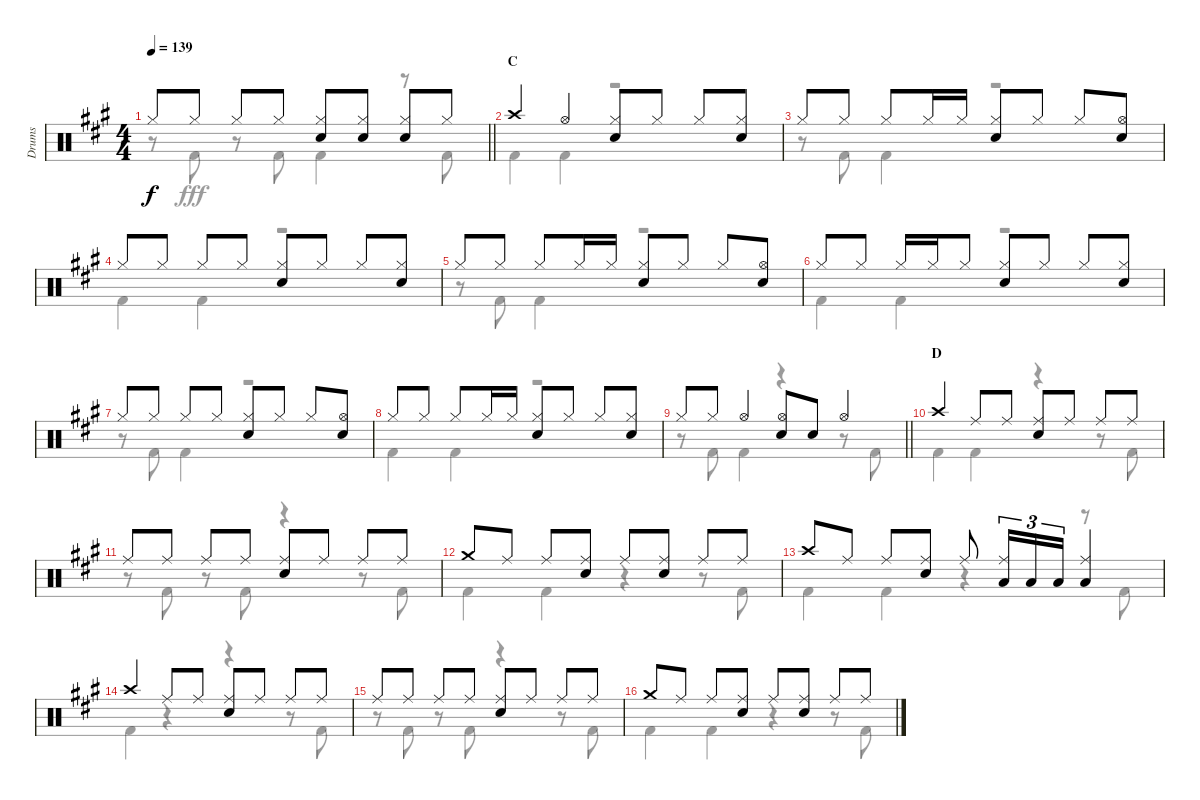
\track ("Drums" "Drums") {instrument percussion}
\staff {score}
\articulation defaults
\voice
\ts (4 4)
\tempo 139
\clef neutral
\barLineRight lightlight
\ks a "Hi-Hat (closed)".8{dy f} "Hi-Hat (closed)".8 "Hi-Hat (closed)".8 "Hi-Hat (closed)".8
("Hi-Hat (closed)" "Snare (hit) 2").8 ("Hi-Hat (closed)" "Snare (hit) 2").8 ("Hi-Hat (closed)" "Snare (hit) 2").8 "Hi-Hat (closed)".8 |
\section ("" "C")
"Crash high (hit)".4 "Hi-Hat (open)".4 ("Hi-Hat (closed)" "Snare (hit) 2").8 "Hi-Hat (closed)".8 "Hi-Hat (closed)".8 ("Hi-Hat (closed)" "Snare (hit) 2").8 |
"Hi-Hat (closed)".8 "Hi-Hat (closed)".8 "Hi-Hat (closed)".8 "Hi-Hat (closed)".16 "Hi-Hat (closed)".16 ("Hi-Hat (closed)" "Snare (hit) 2").8 "Hi-Hat (closed)".8 "Hi-Hat (closed)".8 ("Hi-Hat (open)" "Snare (hit) 2").8 |
"Hi-Hat (closed)".8 "Hi-Hat (closed)".8 "Hi-Hat (closed)".8 "Hi-Hat (closed)".8 ("Hi-Hat (closed)" "Snare (hit) 2").8 "Hi-Hat (closed)".8 "Hi-Hat (closed)".8 ("Hi-Hat (closed)" "Snare (hit) 2").8 |
"Hi-Hat (closed)".8 "Hi-Hat (closed)".8 "Hi-Hat (closed)".8 "Hi-Hat (closed)".16 "Hi-Hat (closed)".16 ("Hi-Hat (closed)" "Snare (hit) 2").8 "Hi-Hat (closed)".8 "Hi-Hat (closed)".8 ("Hi-Hat (open)" "Snare (hit) 2").8 |
"Hi-Hat (closed)".8 "Hi-Hat (closed)".8 "Hi-Hat (closed)".16 "Hi-Hat (closed)".16 "Hi-Hat (closed)".8 ("Hi-Hat (closed)" "Snare (hit) 2").8 "Hi-Hat (closed)".8 "Hi-Hat (closed)".8 ("Hi-Hat (closed)" "Snare (hit) 2").8 |
"Hi-Hat (closed)".8 "Hi-Hat (closed)".8 "Hi-Hat (closed)".8 "Hi-Hat (closed)".8 ("Hi-Hat (closed)" "Snare (hit) 2").8 "Hi-Hat (closed)".8 "Hi-Hat (closed)".8 ("Hi-Hat (open)" "Snare (hit) 2").8 |
"Hi-Hat (closed)".8 "Hi-Hat (closed)".8 "Hi-Hat (closed)".8 "Hi-Hat (closed)".16 "Hi-Hat (closed)".16 ("Hi-Hat (closed)" "Snare (hit) 2").8 "Hi-Hat (closed)".8 "Hi-Hat (closed)".8 ("Hi-Hat (closed)" "Snare (hit) 2").8 |
\barLineRight lightlight "Hi-Hat (closed)".8 "Hi-Hat (closed)".8 "Hi-Hat (open)".4
("Hi-Hat (open)" "Snare (hit) 2").8 "Snare (hit) 2".8 "Hi-Hat (open)".4 |
\section ("" "D")
"Crash high (hit)".4 "Ride (middle)".8 "Ride (middle)".8 ("Ride (middle)" "Snare (hit) 2").8 "Ride (middle)".8 "Ride (middle)".8 "Ride (middle)".8 |
"Ride (middle)".8 "Ride (middle)".8 "Ride (middle)".8 "Ride (middle)".8 ("Ride (middle)" "Snare (hit) 2").8 "Ride (middle)".8 "Ride (middle)".8 "Ride (middle)".8 |
"Crash medium (hit)".8 "Ride (middle)".8 "Ride (middle)".8 ("Ride (middle)" "Snare (hit) 2").8 "Ride (middle)".8 ("Ride (middle)" "Snare (hit) 2").8 "Ride (middle)".8 "Ride (middle)".8 |
"Crash high (hit)".8 "Ride (middle)".8 "Ride (middle)".8 ("Ride (middle)" "Snare (hit) 2").8 "Ride (middle)".8 ("Ride (middle)" "Low Tom (hit)").16{tu (3 2)} "Low Tom (hit)".16{tu (3 2)} "Low Tom (hit)".16{tu (3 2)} ("Ride (middle)" "Low Tom (hit)").4 |
"Crash high (hit)".4 "Ride (middle)".8 "Ride (middle)".8 ("Ride (middle)" "Snare (hit) 2").8 "Ride (middle)".8 "Ride (middle)".8 "Ride (middle)".8 |
"Ride (middle)".8 "Ride (middle)".8 "Ride (middle)".8 "Ride (middle)".8 ("Ride (middle)" "Snare (hit) 2").8 "Ride (middle)".8 "Ride (middle)".8 "Ride (middle)".8 |
"Crash medium (hit)".8 "Ride (middle)".8 "Ride (middle)".8 ("Ride (middle)" "Snare (hit) 2").8 "Ride (middle)".8 ("Ride (middle)" "Snare (hit) 2").8 "Ride (middle)".8 "Ride (middle)".8
\voice
\clef neutral
\ottava regular
\simile none
\barLineRight lightlight
\ks a
r.8{dy fff} "Kick (hit) 2".8 r.8 "Kick (hit) 2".8 "Kick (hit) 2".4 r.8 "Kick (hit) 2".8 |
"Kick (hit) 2".4 "Kick (hit) 2".4 r.2 |
r.8 "Kick (hit) 2".8 "Kick (hit) 2".4 r.2 |
"Kick (hit) 2".4 "Kick (hit) 2".4 r.2 |
r.8 "Kick (hit) 2".8 "Kick (hit) 2".4 r.2 |
"Kick (hit) 2".4 "Kick (hit) 2".4 r.2 |
r.8 "Kick (hit) 2".8 "Kick (hit) 2".4 r.2 |
"Kick (hit) 2".4 "Kick (hit) 2".4 r.2 |
\barLineRight lightlight
r.8 "Kick (hit) 2".8 "Kick (hit) 2".4 r.4 r.8 "Kick (hit) 2".8 |
"Kick (hit) 2".4 "Kick (hit) 2".4 r.4 r.8 "Kick (hit) 2".8 |
r.8 "Kick (hit) 2".8 r.8 "Kick (hit) 2".8 r.4 r.8 "Kick (hit) 2".8 |
"Kick (hit) 2".4 "Kick (hit) 2".4 r.4 r.8 "Kick (hit) 2".8 |
"Kick (hit) 2".4 "Kick (hit) 2".4 r.4 r.8 "Kick (hit) 2".8 |
"Kick (hit) 2".4 r.4 r.4 r.8 "Kick (hit) 2".8 |
r.8 "Kick (hit) 2".8 r.8 "Kick (hit) 2".8 r.4 r.8 "Kick (hit) 2".8 |
"Kick (hit) 2".4 "Kick (hit) 2".4 r.4 r.8 "Kick (hit) 2".8
